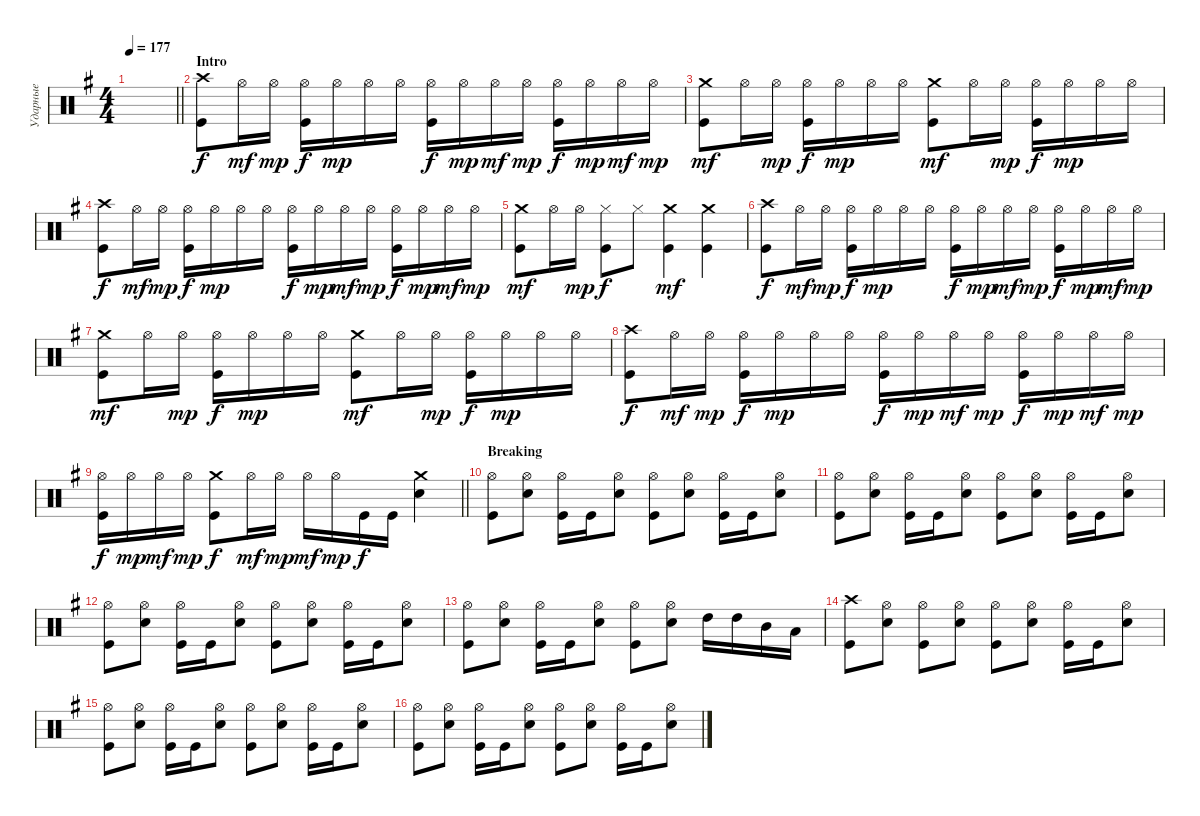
\track ("Ударные" "Ударные") {instrument percussion}
\staff {score}
\articulation defaults
\ts (4 4)
\tempo 177
\clef neutral
\barLineRight lightlight
\ks eminor
|
\section ("" "Intro")
("Kick (hit)" "Crash high (hit)").8 "Hi-Hat (open)".16{dy mf} "Hi-Hat (open)".16{dy mp} ("Hi-Hat (open)" "Kick (hit)").16{dy f} "Hi-Hat (open)".16{dy mp} "Hi-Hat (open)".16 "Hi-Hat (open)".16 ("Hi-Hat (open)" "Kick (hit)").16{dy f} "Hi-Hat (open)".16{dy mp} "Hi-Hat (open)".16{dy mf} "Hi-Hat (open)".16{dy mp} ("Hi-Hat (open)" "Kick (hit)").16{dy f} "Hi-Hat (open)".16{dy mp} "Hi-Hat (open)".16{dy mf} "Hi-Hat (open)".16{dy mp} |
("Kick (hit)" "Crash medium (hit)").8{dy mf} "Hi-Hat (open)".16 "Hi-Hat (open)".16{dy mp} ("Hi-Hat (open)" "Kick (hit)").16{dy f} "Hi-Hat (open)".16{dy mp} "Hi-Hat (open)".16 "Hi-Hat (open)".16 ("Kick (hit)" "Crash medium (hit)").8{dy mf} "Hi-Hat (open)".16 "Hi-Hat (open)".16{dy mp} ("Hi-Hat (open)" "Kick (hit)").16{dy f} "Hi-Hat (open)".16{dy mp} "Hi-Hat (open)".16 "Hi-Hat (open)".16 |
("Kick (hit)" "Crash high (hit)").8{dy f} "Hi-Hat (open)".16{dy mf} "Hi-Hat (open)".16{dy mp} ("Hi-Hat (open)" "Kick (hit)").16{dy f} "Hi-Hat (open)".16{dy mp} "Hi-Hat (open)".16 "Hi-Hat (open)".16 ("Hi-Hat (open)" "Kick (hit)").16{dy f} "Hi-Hat (open)".16{dy mp} "Hi-Hat (open)".16{dy mf} "Hi-Hat (open)".16{dy mp} ("Hi-Hat (open)" "Kick (hit)").16{dy f} "Hi-Hat (open)".16{dy mp} "Hi-Hat (open)".16{dy mf} "Hi-Hat (open)".16{dy mp} |
("Kick (hit)" "Crash medium (hit)").8{dy mf} "Hi-Hat (open)".16 "Hi-Hat (open)".16{dy mp} ("Hi-Hat (closed)" "Kick (hit)").8{dy f} "Hi-Hat (closed)".8 ("Kick (hit)" "Crash medium (hit)").4{dy mf} ("Kick (hit)" "Crash medium (hit)").4 |
("Kick (hit)" "Crash high (hit)").8{dy f} "Hi-Hat (open)".16{dy mf} "Hi-Hat (open)".16{dy mp} ("Hi-Hat (open)" "Kick (hit)").16{dy f} "Hi-Hat (open)".16{dy mp} "Hi-Hat (open)".16 "Hi-Hat (open)".16 ("Hi-Hat (open)" "Kick (hit)").16{dy f} "Hi-Hat (open)".16{dy mp} "Hi-Hat (open)".16{dy mf} "Hi-Hat (open)".16{dy mp} ("Hi-Hat (open)" "Kick (hit)").16{dy f} "Hi-Hat (open)".16{dy mp} "Hi-Hat (open)".16{dy mf} "Hi-Hat (open)".16{dy mp} |
("Kick (hit)" "Crash medium (hit)").8{dy mf} "Hi-Hat (open)".16 "Hi-Hat (open)".16{dy mp} ("Hi-Hat (open)" "Kick (hit)").16{dy f} "Hi-Hat (open)".16{dy mp} "Hi-Hat (open)".16 "Hi-Hat (open)".16 ("Kick (hit)" "Crash medium (hit)").8{dy mf} "Hi-Hat (open)".16 "Hi-Hat (open)".16{dy mp} ("Hi-Hat (open)" "Kick (hit)").16{dy f} "Hi-Hat (open)".16{dy mp} "Hi-Hat (open)".16 "Hi-Hat (open)".16 |
("Kick (hit)" "Crash high (hit)").8{dy f} "Hi-Hat (open)".16{dy mf} "Hi-Hat (open)".16{dy mp} ("Hi-Hat (open)" "Kick (hit)").16{dy f} "Hi-Hat (open)".16{dy mp} "Hi-Hat (open)".16 "Hi-Hat (open)".16 ("Hi-Hat (open)" "Kick (hit)").16{dy f} "Hi-Hat (open)".16{dy mp} "Hi-Hat (open)".16{dy mf} "Hi-Hat (open)".16{dy mp} ("Hi-Hat (open)" "Kick (hit)").16{dy f} "Hi-Hat (open)".16{dy mp} "Hi-Hat (open)".16{dy mf} "Hi-Hat (open)".16{dy mp} |
\barLineRight lightlight
("Hi-Hat (open)" "Kick (hit)").16{dy f} "Hi-Hat (open)".16{dy mp} "Hi-Hat (open)".16{dy mf} "Hi-Hat (open)".16{dy mp} ("Kick (hit)" "Crash medium (hit)").8{dy f} "Hi-Hat (open)".16{dy mf} "Hi-Hat (open)".16{dy mp} "Hi-Hat (open)".16{dy mf} "Hi-Hat (open)".16{dy mp} "Kick (hit)".16{dy f} "Kick (hit)".16 ("Snare (hit) 2" "Crash medium (hit)").4 |
\section ("" "Breaking")
("Kick (hit)" "Hi-Hat (open)").8 ("Hi-Hat (open)" "Snare (hit) 2").8 ("Kick (hit)" "Hi-Hat (open)").16 "Kick (hit)".16 ("Snare (hit) 2" "Hi-Hat (open)").8 ("Kick (hit)" "Hi-Hat (open)").8 ("Hi-Hat (open)" "Snare (hit) 2").8 ("Kick (hit)" "Hi-Hat (open)").16 "Kick (hit)".16 ("Snare (hit) 2" "Hi-Hat (open)").8 |
("Kick (hit)" "Hi-Hat (open)").8 ("Hi-Hat (open)" "Snare (hit) 2").8 ("Kick (hit)" "Hi-Hat (open)").16 "Kick (hit)".16 ("Snare (hit) 2" "Hi-Hat (open)").8 ("Kick (hit)" "Hi-Hat (open)").8 ("Hi-Hat (open)" "Snare (hit) 2").8 ("Kick (hit)" "Hi-Hat (open)").16 "Kick (hit)".16 ("Snare (hit) 2" "Hi-Hat (open)").8 |
("Kick (hit)" "Hi-Hat (open)").8 ("Hi-Hat (open)" "Snare (hit) 2").8 ("Kick (hit)" "Hi-Hat (open)").16 "Kick (hit)".16 ("Snare (hit) 2" "Hi-Hat (open)").8 ("Kick (hit)" "Hi-Hat (open)").8 ("Hi-Hat (open)" "Snare (hit) 2").8 ("Kick (hit)" "Hi-Hat (open)").16 "Kick (hit)".16 ("Snare (hit) 2" "Hi-Hat (open)").8 |
("Kick (hit)" "Hi-Hat (open)").8 ("Hi-Hat (open)" "Snare (hit) 2").8 ("Kick (hit)" "Hi-Hat (open)").16 "Kick (hit)".16 ("Snare (hit) 2" "Hi-Hat (open)").8 ("Kick (hit)" "Hi-Hat (open)").8 ("Hi-Hat (open)" "Snare (hit) 2").8 "High Tom (hit)".16 "High Tom (hit)".16 "Mid Tom (hit)".16 "Low Tom (hit)".16 |
("Kick (hit)" "Crash high (hit)").8 ("Hi-Hat (open)" "Snare (hit) 2").8 ("Kick (hit)" "Hi-Hat (open)").8 ("Snare (hit) 2" "Hi-Hat (open)").8 ("Kick (hit)" "Hi-Hat (open)").8 ("Hi-Hat (open)" "Snare (hit) 2").8 ("Kick (hit)" "Hi-Hat (open)").16 "Kick (hit)".16 ("Snare (hit) 2" "Hi-Hat (open)").8 |
("Kick (hit)" "Hi-Hat (open)").8 ("Hi-Hat (open)" "Snare (hit) 2").8 ("Kick (hit)" "Hi-Hat (open)").16 "Kick (hit)".16 ("Snare (hit) 2" "Hi-Hat (open)").8 ("Kick (hit)" "Hi-Hat (open)").8 ("Hi-Hat (open)" "Snare (hit) 2").8 ("Kick (hit)" "Hi-Hat (open)").16 "Kick (hit)".16 ("Snare (hit) 2" "Hi-Hat (open)").8 |
("Kick (hit)" "Hi-Hat (open)").8 ("Hi-Hat (open)" "Snare (hit) 2").8 ("Kick (hit)" "Hi-Hat (open)").16 "Kick (hit)".16 ("Snare (hit) 2" "Hi-Hat (open)").8 ("Kick (hit)" "Hi-Hat (open)").8 ("Hi-Hat (open)" "Snare (hit) 2").8 ("Kick (hit)" "Hi-Hat (open)").16 "Kick (hit)".16 ("Snare (hit) 2" "Hi-Hat (open)").8
